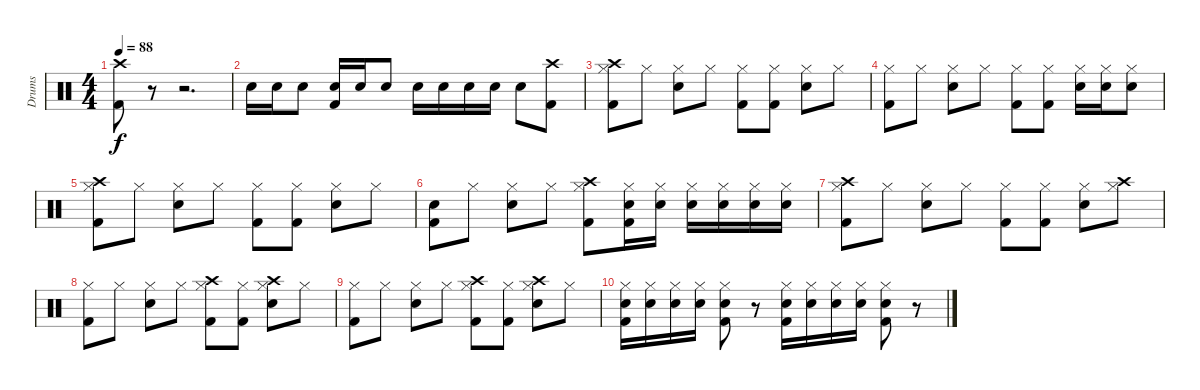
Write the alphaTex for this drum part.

\track ("Drums" "Drums") {instrument percussion}
\staff {score}
\articulation defaults
\ts (4 4)
\tempo 88
\clef neutral
\ks c
("Crash high (hit)" "Kick (hit) 2").8{dy f} r.8 r.2{d} |
"Electric Snare (hit)".16 "Electric Snare (hit)".16 "Electric Snare (hit)".8 ("Electric Snare (hit)" "Kick (hit) 2").16 "Electric Snare (hit)".16 "Electric Snare (hit)".8 "Electric Snare (hit)".16 "Electric Snare (hit)".16 "Electric Snare (hit)".16 "Electric Snare (hit)".16 "Electric Snare (hit)".8 ("Crash high (hit)" "Kick (hit) 2").8 |
("Crash high (hit)" "Hi-Hat (closed)" "Kick (hit) 2").8 "Hi-Hat (closed)".8 ("Hi-Hat (closed)" "Electric Snare (hit)").8 "Hi-Hat (closed)".8 ("Hi-Hat (closed)" "Kick (hit) 2").8 ("Hi-Hat (closed)" "Kick (hit) 2").8 ("Hi-Hat (closed)" "Electric Snare (hit)").8 "Hi-Hat (closed)".8 |
("Hi-Hat (closed)" "Kick (hit) 2").8 "Hi-Hat (closed)".8 ("Hi-Hat (closed)" "Electric Snare (hit)").8 "Hi-Hat (closed)".8 ("Hi-Hat (closed)" "Kick (hit) 2").8 ("Hi-Hat (closed)" "Kick (hit) 2").8 ("Hi-Hat (closed)" "Electric Snare (hit)").16 ("Hi-Hat (closed)" "Electric Snare (hit)").16 ("Hi-Hat (closed)" "Electric Snare (hit)").8 |
("Crash high (hit)" "Hi-Hat (closed)" "Kick (hit) 2").8 "Hi-Hat (closed)".8 ("Hi-Hat (closed)" "Electric Snare (hit)").8 "Hi-Hat (closed)".8 ("Hi-Hat (closed)" "Kick (hit) 2").8 ("Hi-Hat (closed)" "Kick (hit) 2").8 ("Hi-Hat (closed)" "Electric Snare (hit)").8 "Hi-Hat (closed)".8 |
("Snare (hit)" "Kick (hit) 2").8 "Hi-Hat (closed)".8 ("Hi-Hat (closed)" "Electric Snare (hit)").8 "Hi-Hat (closed)".8 ("Crash high (hit)" "Hi-Hat (closed)" "Kick (hit) 2").8 ("Hi-Hat (closed)" "Electric Snare (hit)" "Kick (hit) 2").16 ("Hi-Hat (closed)" "Electric Snare (hit)").16 ("Hi-Hat (closed)" "Electric Snare (hit)").16 ("Hi-Hat (closed)" "Electric Snare (hit)").16 ("Hi-Hat (closed)" "Electric Snare (hit)").16 ("Hi-Hat (closed)" "Electric Snare (hit)").16 |
("Crash high (hit)" "Hi-Hat (closed)" "Kick (hit) 2").8 "Hi-Hat (closed)".8 ("Hi-Hat (closed)" "Electric Snare (hit)").8 "Hi-Hat (closed)".8 ("Hi-Hat (closed)" "Kick (hit) 2").8 ("Hi-Hat (closed)" "Kick (hit) 2").8 ("Hi-Hat (closed)" "Electric Snare (hit)").8 ("Crash high (hit)" "Hi-Hat (closed)").8 |
("Hi-Hat (closed)" "Kick (hit) 2").8 "Hi-Hat (closed)".8 ("Hi-Hat (closed)" "Electric Snare (hit)").8 "Hi-Hat (closed)".8 ("Crash high (hit)" "Hi-Hat (closed)" "Kick (hit) 2").8 ("Hi-Hat (closed)" "Kick (hit) 2").8 ("Crash high (hit)" "Hi-Hat (closed)" "Electric Snare (hit)").8 "Hi-Hat (closed)".8 |
("Hi-Hat (closed)" "Kick (hit) 2").8 "Hi-Hat (closed)".8 ("Hi-Hat (closed)" "Electric Snare (hit)").8 "Hi-Hat (closed)".8 ("Crash high (hit)" "Hi-Hat (closed)" "Kick (hit) 2").8 ("Hi-Hat (closed)" "Kick (hit) 2").8 ("Crash high (hit)" "Hi-Hat (closed)" "Electric Snare (hit)").8 "Hi-Hat (closed)".8 |
("Hi-Hat (closed)" "Electric Snare (hit)" "Kick (hit) 2").16 ("Hi-Hat (closed)" "Electric Snare (hit)").16 ("Hi-Hat (closed)" "Electric Snare (hit)").16 ("Hi-Hat (closed)" "Electric Snare (hit)").16 ("Hi-Hat (closed)" "Electric Snare (hit)" "Kick (hit) 2").8 r.8 ("Hi-Hat (closed)" "Electric Snare (hit)" "Kick (hit) 2").16 ("Hi-Hat (closed)" "Electric Snare (hit)").16 ("Hi-Hat (closed)" "Electric Snare (hit)").16 ("Hi-Hat (closed)" "Electric Snare (hit)").16 ("Hi-Hat (closed)" "Electric Snare (hit)" "Kick (hit) 2").8 r.8
